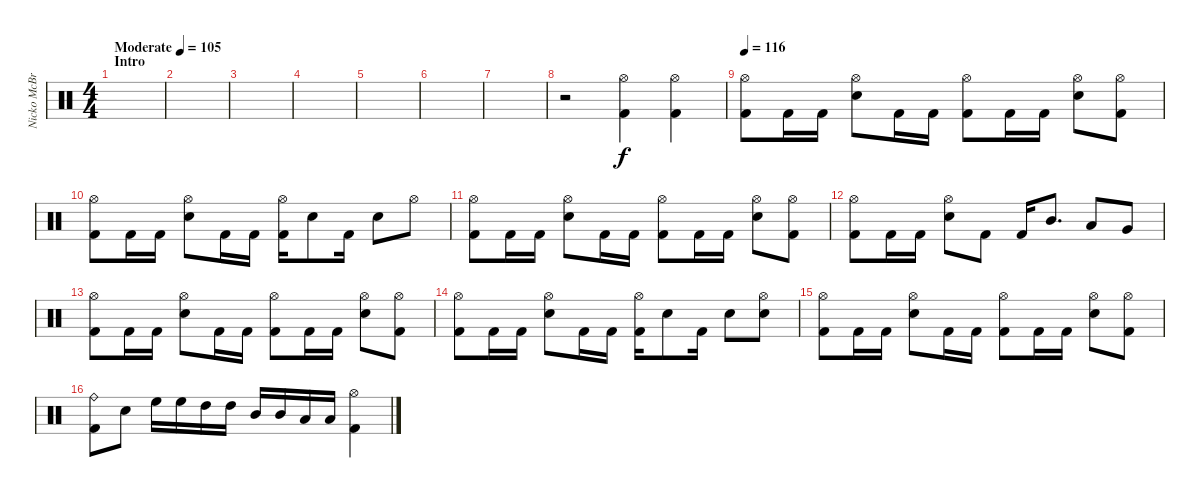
\track ("Nicko McBrain" "Nicko McBr") {instrument percussion}
\staff {score}
\articulation defaults
\ts (4 4)
\section ("" "Intro")
\tempo (105 "Moderate")
\clef neutral
\ks c
|
|
|
|
|
|
|
r.2 ("Hi-Hat (open)" "Kick (hit) 2").4 ("Hi-Hat (open)" "Kick (hit) 2").4 |
\tempo 116
("Hi-Hat (open)" "Kick (hit) 2").8 "Kick (hit) 2".16 "Kick (hit) 2".16 ("Hi-Hat (open)" "Snare (hit) 2").8 "Kick (hit) 2".16 "Kick (hit) 2".16 ("Hi-Hat (open)" "Kick (hit) 2").8 "Kick (hit) 2".16 "Kick (hit) 2".16 ("Hi-Hat (open)" "Snare (hit) 2").8 ("Hi-Hat (open)" "Kick (hit) 2").8 |
("Hi-Hat (open)" "Kick (hit) 2").8 "Kick (hit) 2".16 "Kick (hit) 2".16 ("Hi-Hat (open)" "Snare (hit) 2").8 "Kick (hit) 2".16 "Kick (hit) 2".16 ("Hi-Hat (open)" "Kick (hit) 2").16 "Snare (hit) 2".8 "Kick (hit) 2".16 "Snare (hit) 2".8 "Hi-Hat (open)".8 |
("Hi-Hat (open)" "Kick (hit) 2").8 "Kick (hit) 2".16 "Kick (hit) 2".16 ("Hi-Hat (open)" "Snare (hit) 2").8 "Kick (hit) 2".16 "Kick (hit) 2".16 ("Hi-Hat (open)" "Kick (hit) 2").8 "Kick (hit) 2".16 "Kick (hit) 2".16 ("Hi-Hat (open)" "Snare (hit) 2").8 ("Hi-Hat (open)" "Kick (hit) 2").8 |
("Hi-Hat (open)" "Kick (hit) 2").8 "Kick (hit) 2".16 "Kick (hit) 2".16 ("Hi-Hat (open)" "Snare (hit) 2").8 "Kick (hit) 2".8 "Kick (hit) 2".16 "Mid Tom (hit)".8{d} "Low Tom (hit)".8 "Very Low Tom (hit)".8 |
("Hi-Hat (open)" "Kick (hit) 2").8 "Kick (hit) 2".16 "Kick (hit) 2".16 ("Hi-Hat (open)" "Snare (hit) 2").8 "Kick (hit) 2".16 "Kick (hit) 2".16 ("Hi-Hat (open)" "Kick (hit) 2").8 "Kick (hit) 2".16 "Kick (hit) 2".16 ("Hi-Hat (open)" "Snare (hit) 2").8 ("Hi-Hat (open)" "Kick (hit) 2").8 |
("Hi-Hat (open)" "Kick (hit) 2").8 "Kick (hit) 2".16 "Kick (hit) 2".16 ("Hi-Hat (open)" "Snare (hit) 2").8 "Kick (hit) 2".16 "Kick (hit) 2".16 ("Hi-Hat (open)" "Kick (hit) 2").16 "Snare (hit) 2".8 "Kick (hit) 2".16 "Snare (hit) 2".8 ("Hi-Hat (open)" "Snare (hit) 2").8 |
("Hi-Hat (open)" "Kick (hit) 2").8 "Kick (hit) 2".16 "Kick (hit) 2".16 ("Hi-Hat (open)" "Snare (hit) 2").8 "Kick (hit) 2".16 "Kick (hit) 2".16 ("Hi-Hat (open)" "Kick (hit) 2").8 "Kick (hit) 2".16 "Kick (hit) 2".16 ("Hi-Hat (open)" "Snare (hit) 2").8 ("Hi-Hat (open)" "Kick (hit) 2").8 |
("Ride (bell)" "Kick (hit) 2").8 "Snare (hit) 2".8 "High Floor Tom (hit)".16 "High Floor Tom (hit)".16 "High Tom (hit)".16 "High Tom (hit)".16 "Mid Tom (hit)".16 "Mid Tom (hit)".16 "Low Tom (hit)".16 "Low Tom (hit)".16 ("Hi-Hat (open)" "Kick (hit) 2").4
